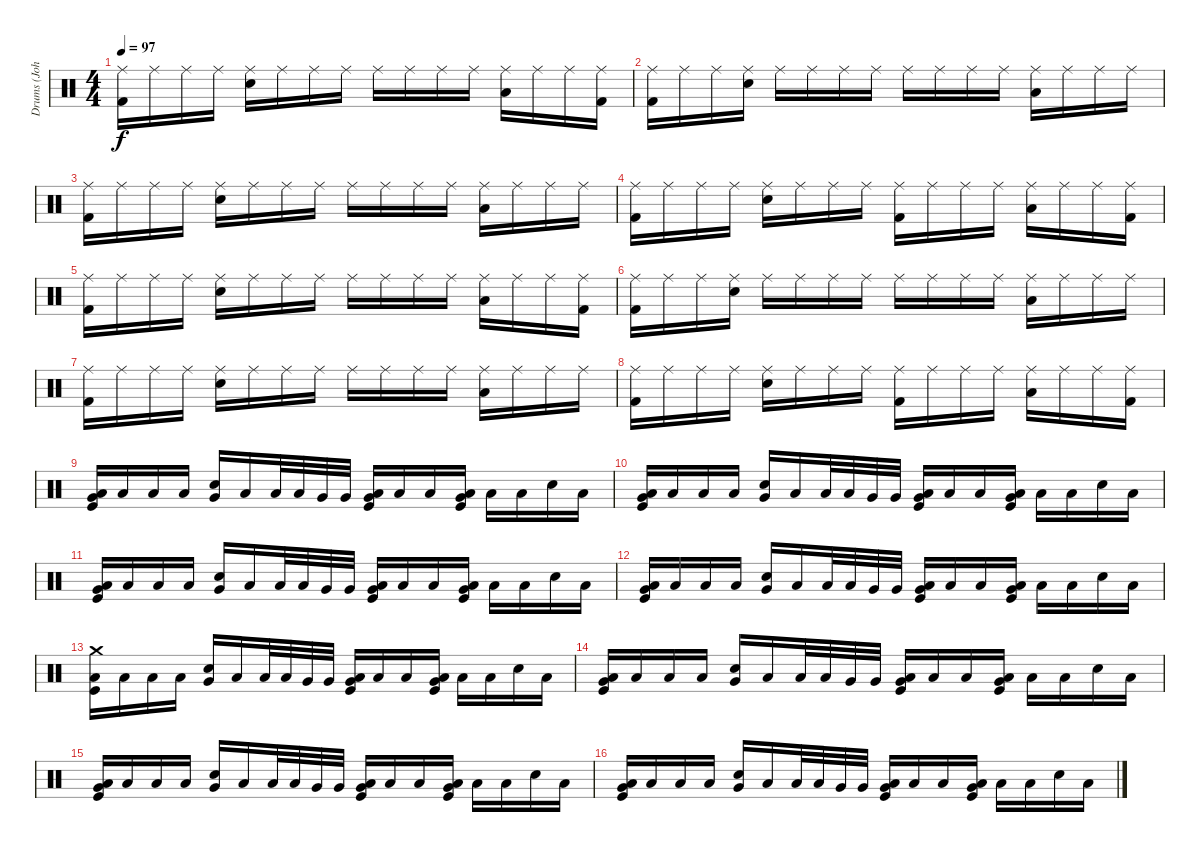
\track ("Drums (John Ensminger)" "Drums (Joh") {instrument percussion}
\staff {score}
\articulation defaults
\ts (4 4)
\tempo 97
\clef neutral
\ks c
("Ride (middle)" "Kick (hit) 2").16{dy f} "Ride (middle)".16 "Ride (middle)".16 "Ride (middle)".16 ("Ride (middle)" "Electric Snare (hit)").16 "Ride (middle)".16 "Ride (middle)".16 "Ride (middle)".16 "Ride (middle)".16 "Ride (middle)".16 "Ride (middle)".16 "Ride (middle)".16 ("Ride (middle)" "Low Floor Tom (hit)").16 "Ride (middle)".16 "Ride (middle)".16 ("Ride (middle)" "Kick (hit) 2").16 |
("Ride (middle)" "Kick (hit) 2").16 "Ride (middle)".16 "Ride (middle)".16 ("Ride (middle)" "Electric Snare (hit)").16 "Ride (middle)".16 "Ride (middle)".16 "Ride (middle)".16 "Ride (middle)".16 "Ride (middle)".16 "Ride (middle)".16 "Ride (middle)".16 "Ride (middle)".16 ("Ride (middle)" "Low Floor Tom (hit)").16 "Ride (middle)".16 "Ride (middle)".16 "Ride (middle)".16 |
("Ride (middle)" "Kick (hit) 2").16 "Ride (middle)".16 "Ride (middle)".16 "Ride (middle)".16 ("Ride (middle)" "Electric Snare (hit)").16 "Ride (middle)".16 "Ride (middle)".16 "Ride (middle)".16 "Ride (middle)".16 "Ride (middle)".16 "Ride (middle)".16 "Ride (middle)".16 ("Ride (middle)" "Low Floor Tom (hit)").16 "Ride (middle)".16 "Ride (middle)".16 "Ride (middle)".16 |
("Ride (middle)" "Kick (hit) 2").16 "Ride (middle)".16 "Ride (middle)".16 "Ride (middle)".16 ("Ride (middle)" "Electric Snare (hit)").16 "Ride (middle)".16 "Ride (middle)".16 "Ride (middle)".16 ("Ride (middle)" "Kick (hit) 2").16 "Ride (middle)".16 "Ride (middle)".16 "Ride (middle)".16 ("Ride (middle)" "Low Floor Tom (hit)").16 "Ride (middle)".16 "Ride (middle)".16 ("Ride (middle)" "Kick (hit) 2").16 |
("Ride (middle)" "Kick (hit) 2").16 "Ride (middle)".16 "Ride (middle)".16 "Ride (middle)".16 ("Ride (middle)" "Electric Snare (hit)").16 "Ride (middle)".16 "Ride (middle)".16 "Ride (middle)".16 "Ride (middle)".16 "Ride (middle)".16 "Ride (middle)".16 "Ride (middle)".16 ("Ride (middle)" "Low Floor Tom (hit)").16 "Ride (middle)".16 "Ride (middle)".16 ("Ride (middle)" "Kick (hit) 2").16 |
("Ride (middle)" "Kick (hit) 2").16 "Ride (middle)".16 "Ride (middle)".16 ("Ride (middle)" "Electric Snare (hit)").16 "Ride (middle)".16 "Ride (middle)".16 "Ride (middle)".16 "Ride (middle)".16 "Ride (middle)".16 "Ride (middle)".16 "Ride (middle)".16 "Ride (middle)".16 ("Ride (middle)" "Low Floor Tom (hit)").16 "Ride (middle)".16 "Ride (middle)".16 "Ride (middle)".16 |
("Ride (middle)" "Kick (hit) 2").16 "Ride (middle)".16 "Ride (middle)".16 "Ride (middle)".16 ("Ride (middle)" "Electric Snare (hit)").16 "Ride (middle)".16 "Ride (middle)".16 "Ride (middle)".16 "Ride (middle)".16 "Ride (middle)".16 "Ride (middle)".16 "Ride (middle)".16 ("Ride (middle)" "Low Floor Tom (hit)").16 "Ride (middle)".16 "Ride (middle)".16 "Ride (middle)".16 |
("Ride (middle)" "Kick (hit) 2").16 "Ride (middle)".16 "Ride (middle)".16 "Ride (middle)".16 ("Ride (middle)" "Electric Snare (hit)").16 "Ride (middle)".16 "Ride (middle)".16 "Ride (middle)".16 ("Ride (middle)" "Kick (hit) 2").16 "Ride (middle)".16 "Ride (middle)".16 "Ride (middle)".16 ("Ride (middle)" "Low Floor Tom (hit)").16 "Ride (middle)".16 "Ride (middle)".16 ("Ride (middle)" "Kick (hit) 2").16 |
("Very Low Tom (hit)" "Low Floor Tom (hit)" "Kick (hit)").16{bd 120} "Low Floor Tom (hit)".16 "Low Floor Tom (hit)".16 "Low Floor Tom (hit)".16 ("Very Low Tom (hit)" "Electric Snare (hit)").16 "Low Floor Tom (hit)".16 "Low Tom (hit)".32 "Low Tom (hit)".32 "Very Low Tom (hit)".32 "Very Low Tom (hit)".32 ("Very Low Tom (hit)" "Low Floor Tom (hit)" "Kick (hit)").16{bd 60} "Low Floor Tom (hit)".16 "Low Floor Tom (hit)".16 ("Very Low Tom (hit)" "Low Floor Tom (hit)" "Kick (hit)").16{bd 60} "Low Floor Tom (hit)".16 "Low Floor Tom (hit)".16 "Electric Snare (hit)".16 "Low Floor Tom (hit)".16 |
("Very Low Tom (hit)" "Low Floor Tom (hit)" "Kick (hit)").16{bd 120} "Low Floor Tom (hit)".16 "Low Floor Tom (hit)".16 "Low Floor Tom (hit)".16 ("Very Low Tom (hit)" "Electric Snare (hit)").16 "Low Floor Tom (hit)".16 "Low Tom (hit)".32 "Low Tom (hit)".32 "Very Low Tom (hit)".32 "Very Low Tom (hit)".32 ("Very Low Tom (hit)" "Low Floor Tom (hit)" "Kick (hit)").16{bd 60} "Low Floor Tom (hit)".16 "Low Floor Tom (hit)".16 ("Very Low Tom (hit)" "Low Floor Tom (hit)" "Kick (hit)").16{bd 60} "Low Floor Tom (hit)".16 "Low Floor Tom (hit)".16 "Electric Snare (hit)".16 "Low Floor Tom (hit)".16 |
("Very Low Tom (hit)" "Low Floor Tom (hit)" "Kick (hit)").16{bd 120} "Low Floor Tom (hit)".16 "Low Floor Tom (hit)".16 "Low Floor Tom (hit)".16 ("Very Low Tom (hit)" "Electric Snare (hit)").16 "Low Floor Tom (hit)".16 "Low Tom (hit)".32 "Low Tom (hit)".32 "Very Low Tom (hit)".32 "Very Low Tom (hit)".32 ("Very Low Tom (hit)" "Low Floor Tom (hit)" "Kick (hit)").16{bd 60} "Low Floor Tom (hit)".16 "Low Floor Tom (hit)".16 ("Very Low Tom (hit)" "Low Floor Tom (hit)" "Kick (hit)").16{bd 60} "Low Floor Tom (hit)".16 "Low Floor Tom (hit)".16 "Electric Snare (hit)".16 "Low Floor Tom (hit)".16 |
("Very Low Tom (hit)" "Low Floor Tom (hit)" "Kick (hit)").16{bd 120} "Low Floor Tom (hit)".16 "Low Floor Tom (hit)".16 "Low Floor Tom (hit)".16 ("Very Low Tom (hit)" "Electric Snare (hit)").16 "Low Floor Tom (hit)".16 "Low Tom (hit)".32 "Low Tom (hit)".32 "Very Low Tom (hit)".32 "Very Low Tom (hit)".32 ("Very Low Tom (hit)" "Low Floor Tom (hit)" "Kick (hit)").16{bd 60} "Low Floor Tom (hit)".16 "Low Floor Tom (hit)".16 ("Very Low Tom (hit)" "Low Floor Tom (hit)" "Kick (hit)").16{bd 60} "Low Floor Tom (hit)".16 "Low Floor Tom (hit)".16 "Electric Snare (hit)".16 "Low Floor Tom (hit)".16 |
("Crash medium (hit)" "Low Floor Tom (hit)" "Kick (hit)").16 "Low Floor Tom (hit)".16 "Low Floor Tom (hit)".16 "Low Floor Tom (hit)".16 ("Very Low Tom (hit)" "Electric Snare (hit)").16 "Low Floor Tom (hit)".16 "Low Tom (hit)".32 "Low Tom (hit)".32 "Very Low Tom (hit)".32 "Very Low Tom (hit)".32 ("Very Low Tom (hit)" "Low Floor Tom (hit)" "Kick (hit)").16{bd 60} "Low Floor Tom (hit)".16 "Low Floor Tom (hit)".16 ("Very Low Tom (hit)" "Low Floor Tom (hit)" "Kick (hit)").16{bd 60} "Low Floor Tom (hit)".16 "Low Floor Tom (hit)".16 "Electric Snare (hit)".16 "Low Floor Tom (hit)".16 |
("Very Low Tom (hit)" "Low Floor Tom (hit)" "Kick (hit)").16{bd 120} "Low Floor Tom (hit)".16 "Low Floor Tom (hit)".16 "Low Floor Tom (hit)".16 ("Very Low Tom (hit)" "Electric Snare (hit)").16 "Low Floor Tom (hit)".16 "Low Tom (hit)".32 "Low Tom (hit)".32 "Very Low Tom (hit)".32 "Very Low Tom (hit)".32 ("Very Low Tom (hit)" "Low Floor Tom (hit)" "Kick (hit)").16{bd 60} "Low Floor Tom (hit)".16 "Low Floor Tom (hit)".16 ("Very Low Tom (hit)" "Low Floor Tom (hit)" "Kick (hit)").16{bd 60} "Low Floor Tom (hit)".16 "Low Floor Tom (hit)".16 "Electric Snare (hit)".16 "Low Floor Tom (hit)".16 |
("Very Low Tom (hit)" "Low Floor Tom (hit)" "Kick (hit)").16{bd 120} "Low Floor Tom (hit)".16 "Low Floor Tom (hit)".16 "Low Floor Tom (hit)".16 ("Very Low Tom (hit)" "Electric Snare (hit)").16 "Low Floor Tom (hit)".16 "Low Tom (hit)".32 "Low Tom (hit)".32 "Very Low Tom (hit)".32 "Very Low Tom (hit)".32 ("Very Low Tom (hit)" "Low Floor Tom (hit)" "Kick (hit)").16{bd 60} "Low Floor Tom (hit)".16 "Low Floor Tom (hit)".16 ("Very Low Tom (hit)" "Low Floor Tom (hit)" "Kick (hit)").16{bd 60} "Low Floor Tom (hit)".16 "Low Floor Tom (hit)".16 "Electric Snare (hit)".16 "Low Floor Tom (hit)".16 |
("Very Low Tom (hit)" "Low Floor Tom (hit)" "Kick (hit)").16{bd 120} "Low Floor Tom (hit)".16 "Low Floor Tom (hit)".16 "Low Floor Tom (hit)".16 ("Very Low Tom (hit)" "Electric Snare (hit)").16 "Low Floor Tom (hit)".16 "Low Tom (hit)".32 "Low Tom (hit)".32 "Very Low Tom (hit)".32 "Very Low Tom (hit)".32 ("Very Low Tom (hit)" "Low Floor Tom (hit)" "Kick (hit)").16{bd 60} "Low Floor Tom (hit)".16 "Low Floor Tom (hit)".16 ("Very Low Tom (hit)" "Low Floor Tom (hit)" "Kick (hit)").16{bd 60} "Low Floor Tom (hit)".16 "Low Floor Tom (hit)".16 "Electric Snare (hit)".16 "Low Floor Tom (hit)".16
